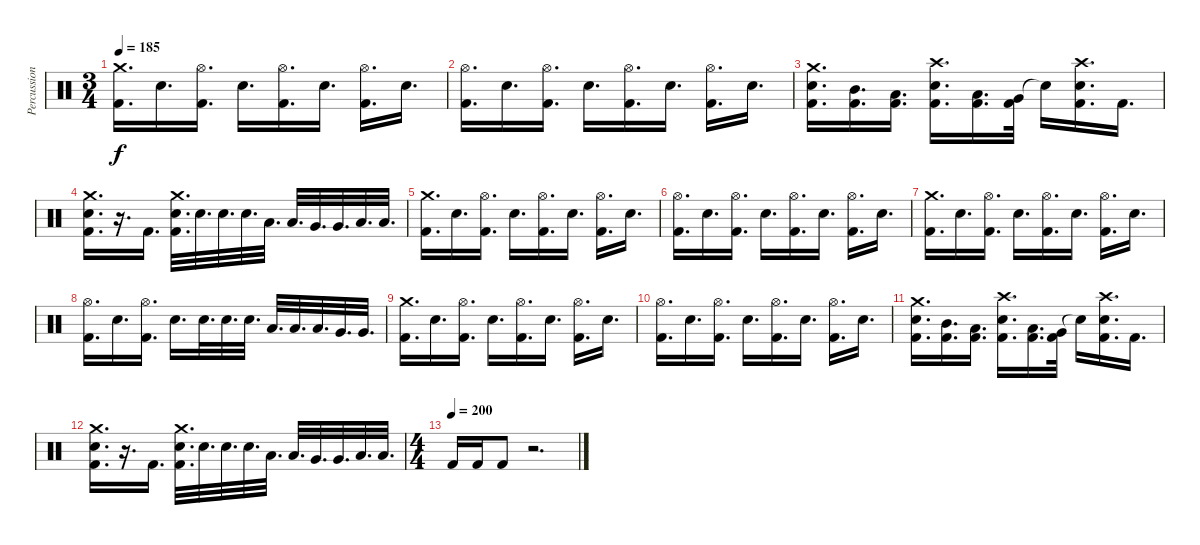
\track ("Percussion" "Percussion") {instrument percussion}
\staff {score}
\articulation defaults
\ts (3 4)
\tempo 185
\clef neutral
\ks c
("Crash medium (hit)" "Kick (hit) 2").16{d dy f} "Electric Snare (hit)".16{d} ("Hi-Hat (open)" "Kick (hit) 2").16{d} "Electric Snare (hit)".16{d} ("Hi-Hat (open)" "Kick (hit) 2").16{d} "Electric Snare (hit)".16{d} ("Hi-Hat (open)" "Kick (hit) 2").16{d} "Electric Snare (hit)".16{d} |
("Hi-Hat (open)" "Kick (hit) 2").16{d} "Electric Snare (hit)".16{d} ("Hi-Hat (open)" "Kick (hit) 2").16{d} "Electric Snare (hit)".16{d} ("Hi-Hat (open)" "Kick (hit) 2").16{d} "Electric Snare (hit)".16{d} ("Hi-Hat (open)" "Kick (hit) 2").16{d} "Electric Snare (hit)".16{d} |
("Crash medium (hit)" "Electric Snare (hit)" "Kick (hit) 2").16{d} ("Mid Tom (hit)" "Kick (hit) 2").16{d} ("Low Tom (hit)" "Kick (hit) 2").16{d} ("Crash high (hit)" "Electric Snare (hit)" "Kick (hit) 2").16{d} ("Low Tom (hit)" "Kick (hit) 2").16{d} ("Very Low Tom (hit)" "Kick (hit) 2").32 "Snare (hit)"{t}.16 ("Crash high (hit)" "Electric Snare (hit)" "Kick (hit) 2").16{d} "Kick (hit) 2".16{d} |
("Crash medium (hit)" "Electric Snare (hit)" "Kick (hit) 2").16{d} r.16{d} "Kick (hit) 2".16{d} ("Crash medium (hit)" "Electric Snare (hit)" "Kick (hit) 2").32{d} "Electric Snare (hit)".32{d} "Electric Snare (hit)".32{d} "Electric Snare (hit)".32{d} "Low Tom (hit)".32{d} "Low Tom (hit)".32{d} "Very Low Tom (hit)".32{d} "Very Low Tom (hit)".32{d} "Low Floor Tom (hit)".32{d} "Low Floor Tom (hit)".32{d} |
("Crash medium (hit)" "Kick (hit) 2").16{d} "Electric Snare (hit)".16{d} ("Hi-Hat (open)" "Kick (hit) 2").16{d} "Electric Snare (hit)".16{d} ("Hi-Hat (open)" "Kick (hit) 2").16{d} "Electric Snare (hit)".16{d} ("Hi-Hat (open)" "Kick (hit) 2").16{d} "Electric Snare (hit)".16{d} |
("Hi-Hat (open)" "Kick (hit) 2").16{d} "Electric Snare (hit)".16{d} ("Hi-Hat (open)" "Kick (hit) 2").16{d} "Electric Snare (hit)".16{d} ("Hi-Hat (open)" "Kick (hit) 2").16{d} "Electric Snare (hit)".16{d} ("Hi-Hat (open)" "Kick (hit) 2").16{d} "Electric Snare (hit)".16{d} |
("Crash medium (hit)" "Kick (hit) 2").16{d} "Electric Snare (hit)".16{d} ("Hi-Hat (open)" "Kick (hit) 2").16{d} "Electric Snare (hit)".16{d} ("Hi-Hat (open)" "Kick (hit) 2").16{d} "Electric Snare (hit)".16{d} ("Hi-Hat (open)" "Kick (hit) 2").16{d} "Electric Snare (hit)".16{d} |
("Hi-Hat (open)" "Kick (hit) 2").16{d} "Electric Snare (hit)".16{d} ("Hi-Hat (open)" "Kick (hit) 2").16{d} "Electric Snare (hit)".16{d} "Electric Snare (hit)".32{d} "Electric Snare (hit)".32{d} "Electric Snare (hit)".32{d} "Low Tom (hit)".32{d} "Low Tom (hit)".32{d} "Low Tom (hit)".32{d} "Very Low Tom (hit)".32{d} "Very Low Tom (hit)".32{d} |
("Crash medium (hit)" "Kick (hit) 2").16{d} "Electric Snare (hit)".16{d} ("Hi-Hat (open)" "Kick (hit) 2").16{d} "Electric Snare (hit)".16{d} ("Hi-Hat (open)" "Kick (hit) 2").16{d} "Electric Snare (hit)".16{d} ("Hi-Hat (open)" "Kick (hit) 2").16{d} "Electric Snare (hit)".16{d} |
("Hi-Hat (open)" "Kick (hit) 2").16{d} "Electric Snare (hit)".16{d} ("Hi-Hat (open)" "Kick (hit) 2").16{d} "Electric Snare (hit)".16{d} ("Hi-Hat (open)" "Kick (hit) 2").16{d} "Electric Snare (hit)".16{d} ("Hi-Hat (open)" "Kick (hit) 2").16{d} "Electric Snare (hit)".16{d} |
("Crash medium (hit)" "Electric Snare (hit)" "Kick (hit) 2").16{d} ("Mid Tom (hit)" "Kick (hit) 2").16{d} ("Low Tom (hit)" "Kick (hit) 2").16{d} ("Crash high (hit)" "Electric Snare (hit)" "Kick (hit) 2").16{d} ("Low Tom (hit)" "Kick (hit) 2").16{d} ("Very Low Tom (hit)" "Kick (hit) 2").32 "Snare (hit)"{t}.16 ("Crash high (hit)" "Electric Snare (hit)" "Kick (hit) 2").16{d} "Kick (hit) 2".16{d} |
("Crash medium (hit)" "Electric Snare (hit)" "Kick (hit) 2").16{d} r.16{d} "Kick (hit) 2".16{d} ("Crash medium (hit)" "Electric Snare (hit)" "Kick (hit) 2").32{d} "Electric Snare (hit)".32{d} "Electric Snare (hit)".32{d} "Electric Snare (hit)".32{d} "Low Tom (hit)".32{d} "Low Tom (hit)".32{d} "Very Low Tom (hit)".32{d} "Very Low Tom (hit)".32{d} "Low Floor Tom (hit)".32{d} "Low Floor Tom (hit)".32{d} |
\ts (4 4)
\tempo (200)
"Kick (hit) 2".16 "Kick (hit) 2".16 "Kick (hit) 2".8 r.2{d}
